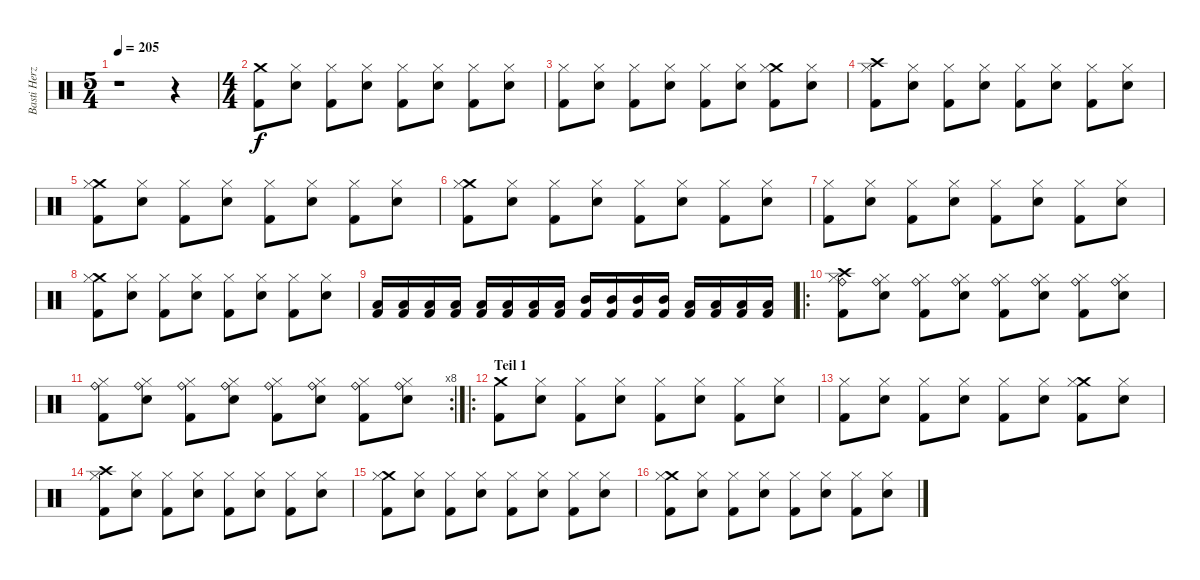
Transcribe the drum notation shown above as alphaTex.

\track ("Basti Herzog" "Basti Herz") {instrument percussion}
\staff {score}
\articulation defaults
\ts (5 4)
\tempo 205
\clef neutral
\ks c
r.1{dy f} r.4 |
\ts (4 4)
("Crash medium (hit)" "Kick (hit) 2").8 ("Hi-Hat (closed)" "Snare (hit) 2").8 ("Hi-Hat (closed)" "Kick (hit) 2").8 ("Hi-Hat (closed)" "Snare (hit) 2").8 ("Hi-Hat (closed)" "Kick (hit) 2").8 ("Hi-Hat (closed)" "Snare (hit) 2").8 ("Hi-Hat (closed)" "Kick (hit) 2").8 ("Hi-Hat (closed)" "Snare (hit) 2").8 |
("Hi-Hat (closed)" "Kick (hit) 2").8 ("Hi-Hat (closed)" "Snare (hit) 2").8 ("Hi-Hat (closed)" "Kick (hit) 2").8 ("Hi-Hat (closed)" "Snare (hit) 2").8 ("Hi-Hat (closed)" "Kick (hit) 2").8 ("Hi-Hat (closed)" "Snare (hit) 2").8 ("Crash medium (hit)" "Hi-Hat (closed)" "Kick (hit) 2").8 ("Hi-Hat (closed)" "Snare (hit) 2").8 |
("Crash high (hit)" "Hi-Hat (closed)" "Kick (hit) 2").8 ("Hi-Hat (closed)" "Snare (hit) 2").8 ("Hi-Hat (closed)" "Kick (hit) 2").8 ("Hi-Hat (closed)" "Snare (hit) 2").8 ("Hi-Hat (closed)" "Kick (hit) 2").8 ("Hi-Hat (closed)" "Snare (hit) 2").8 ("Hi-Hat (closed)" "Kick (hit) 2").8 ("Hi-Hat (closed)" "Snare (hit) 2").8 |
("Crash medium (hit)" "Hi-Hat (closed)" "Kick (hit) 2").8 ("Hi-Hat (closed)" "Snare (hit) 2").8 ("Hi-Hat (closed)" "Kick (hit) 2").8 ("Hi-Hat (closed)" "Snare (hit) 2").8 ("Hi-Hat (closed)" "Kick (hit) 2").8 ("Hi-Hat (closed)" "Snare (hit) 2").8 ("Hi-Hat (closed)" "Kick (hit) 2").8 ("Hi-Hat (closed)" "Snare (hit) 2").8 |
("Crash medium (hit)" "Hi-Hat (closed)" "Kick (hit) 2").8 ("Hi-Hat (closed)" "Snare (hit) 2").8 ("Hi-Hat (closed)" "Kick (hit) 2").8 ("Hi-Hat (closed)" "Snare (hit) 2").8 ("Hi-Hat (closed)" "Kick (hit) 2").8 ("Hi-Hat (closed)" "Snare (hit) 2").8 ("Hi-Hat (closed)" "Kick (hit) 2").8 ("Hi-Hat (closed)" "Snare (hit) 2").8 |
("Hi-Hat (closed)" "Kick (hit) 2").8 ("Hi-Hat (closed)" "Snare (hit) 2").8 ("Hi-Hat (closed)" "Kick (hit) 2").8 ("Hi-Hat (closed)" "Snare (hit) 2").8 ("Hi-Hat (closed)" "Kick (hit) 2").8 ("Hi-Hat (closed)" "Snare (hit) 2").8 ("Hi-Hat (closed)" "Kick (hit) 2").8 ("Hi-Hat (closed)" "Snare (hit) 2").8 |
("Crash medium (hit)" "Hi-Hat (closed)" "Kick (hit) 2").8 ("Hi-Hat (closed)" "Snare (hit) 2").8 ("Hi-Hat (closed)" "Kick (hit) 2").8 ("Hi-Hat (closed)" "Snare (hit) 2").8 ("Hi-Hat (closed)" "Kick (hit) 2").8 ("Hi-Hat (closed)" "Snare (hit) 2").8 ("Hi-Hat (closed)" "Kick (hit) 2").8 ("Hi-Hat (closed)" "Snare (hit) 2").8 |
("Low Tom (hit)" "Kick (hit) 2").16 ("Low Tom (hit)" "Kick (hit) 2").16 ("Low Tom (hit)" "Kick (hit) 2").16 ("Low Tom (hit)" "Kick (hit) 2").16 ("Low Floor Tom (hit)" "Kick (hit) 2").16 ("Low Floor Tom (hit)" "Kick (hit) 2").16 ("Low Floor Tom (hit)" "Kick (hit) 2").16 ("Low Floor Tom (hit)" "Kick (hit) 2").16 ("Mid Tom (hit)" "Kick (hit) 2").16 ("Mid Tom (hit)" "Kick (hit) 2").16 ("Mid Tom (hit)" "Kick (hit) 2").16 ("Mid Tom (hit)" "Kick (hit) 2").16 ("Low Tom (hit)" "Kick (hit) 2").16 ("Low Tom (hit)" "Kick (hit) 2").16 ("Low Tom (hit)" "Kick (hit) 2").16 ("Low Tom (hit)" "Kick (hit) 2").16 |
\ro
("Ride (bell)" "Crash high (hit)" "Hi-Hat (closed)" "Kick (hit) 2").8 ("Ride (bell)" "Hi-Hat (closed)" "Snare (hit) 2").8 ("Ride (bell)" "Hi-Hat (closed)" "Kick (hit) 2").8 ("Ride (bell)" "Hi-Hat (closed)" "Snare (hit) 2").8 ("Ride (bell)" "Hi-Hat (closed)" "Kick (hit) 2").8 ("Ride (bell)" "Hi-Hat (closed)" "Snare (hit) 2").8 ("Ride (bell)" "Hi-Hat (closed)" "Kick (hit) 2").8 ("Ride (bell)" "Hi-Hat (closed)" "Snare (hit) 2").8 |
\rc 8
("Ride (bell)" "Hi-Hat (closed)" "Kick (hit) 2").8 ("Ride (bell)" "Hi-Hat (closed)" "Snare (hit) 2").8 ("Ride (bell)" "Hi-Hat (closed)" "Kick (hit) 2").8 ("Ride (bell)" "Hi-Hat (closed)" "Snare (hit) 2").8 ("Ride (bell)" "Hi-Hat (closed)" "Kick (hit) 2").8 ("Ride (bell)" "Hi-Hat (closed)" "Snare (hit) 2").8 ("Ride (bell)" "Hi-Hat (closed)" "Kick (hit) 2").8 ("Ride (bell)" "Hi-Hat (closed)" "Snare (hit) 2").8 |
\ro
\section ("" "Teil 1")
("Crash medium (hit)" "Kick (hit) 2").8 ("Hi-Hat (closed)" "Snare (hit) 2").8 ("Hi-Hat (closed)" "Kick (hit) 2").8 ("Hi-Hat (closed)" "Snare (hit) 2").8 ("Hi-Hat (closed)" "Kick (hit) 2").8 ("Hi-Hat (closed)" "Snare (hit) 2").8 ("Hi-Hat (closed)" "Kick (hit) 2").8 ("Hi-Hat (closed)" "Snare (hit) 2").8 |
("Hi-Hat (closed)" "Kick (hit) 2").8 ("Hi-Hat (closed)" "Snare (hit) 2").8 ("Hi-Hat (closed)" "Kick (hit) 2").8 ("Hi-Hat (closed)" "Snare (hit) 2").8 ("Hi-Hat (closed)" "Kick (hit) 2").8 ("Hi-Hat (closed)" "Snare (hit) 2").8 ("Crash medium (hit)" "Hi-Hat (closed)" "Kick (hit) 2").8 ("Hi-Hat (closed)" "Snare (hit) 2").8 |
("Crash high (hit)" "Hi-Hat (closed)" "Kick (hit) 2").8 ("Hi-Hat (closed)" "Snare (hit) 2").8 ("Hi-Hat (closed)" "Kick (hit) 2").8 ("Hi-Hat (closed)" "Snare (hit) 2").8 ("Hi-Hat (closed)" "Kick (hit) 2").8 ("Hi-Hat (closed)" "Snare (hit) 2").8 ("Hi-Hat (closed)" "Kick (hit) 2").8 ("Hi-Hat (closed)" "Snare (hit) 2").8 |
("Crash medium (hit)" "Hi-Hat (closed)" "Kick (hit) 2").8 ("Hi-Hat (closed)" "Snare (hit) 2").8 ("Hi-Hat (closed)" "Kick (hit) 2").8 ("Hi-Hat (closed)" "Snare (hit) 2").8 ("Hi-Hat (closed)" "Kick (hit) 2").8 ("Hi-Hat (closed)" "Snare (hit) 2").8 ("Hi-Hat (closed)" "Kick (hit) 2").8 ("Hi-Hat (closed)" "Snare (hit) 2").8 |
("Crash medium (hit)" "Hi-Hat (closed)" "Kick (hit) 2").8 ("Hi-Hat (closed)" "Snare (hit) 2").8 ("Hi-Hat (closed)" "Kick (hit) 2").8 ("Hi-Hat (closed)" "Snare (hit) 2").8 ("Hi-Hat (closed)" "Kick (hit) 2").8 ("Hi-Hat (closed)" "Snare (hit) 2").8 ("Hi-Hat (closed)" "Kick (hit) 2").8 ("Hi-Hat (closed)" "Snare (hit) 2").8
